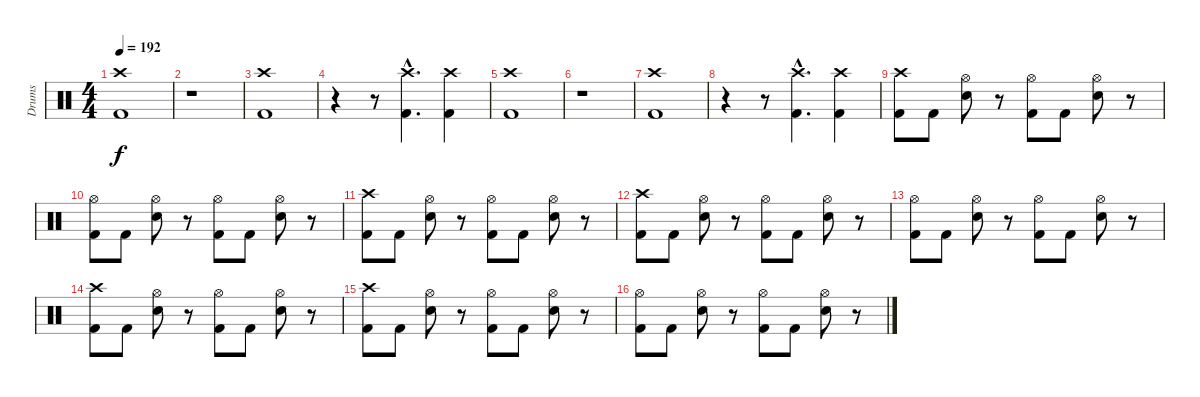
\track ("Drums" "Drums") {instrument percussion}
\staff {score}
\articulation defaults
\ts (4 4)
\tempo 192
\clef neutral
\ks c
("Crash high (hit)" "Kick (hit) 2").1{dy f} |
r.1 |
("Crash high (hit)" "Kick (hit) 2").1 |
r.4 r.8 ("Crash high (hit)"{hac} "Kick (hit) 2"{hac}).4{d} ("Crash high (hit)" "Kick (hit) 2").4 |
("Crash high (hit)" "Kick (hit) 2").1 |
r.1 |
("Crash high (hit)" "Kick (hit) 2").1 |
r.4 r.8 ("Crash high (hit)"{hac} "Kick (hit) 2"{hac}).4{d} ("Crash high (hit)" "Kick (hit) 2").4 |
("Crash high (hit)" "Kick (hit) 2").8 "Kick (hit) 2".8 ("Hi-Hat (open)" "Snare (hit) 2").8 r.8 ("Hi-Hat (open)" "Kick (hit) 2").8 "Kick (hit) 2".8 ("Hi-Hat (open)" "Snare (hit) 2").8 r.8 |
("Hi-Hat (open)" "Kick (hit) 2").8 "Kick (hit) 2".8 ("Hi-Hat (open)" "Snare (hit) 2").8 r.8 ("Hi-Hat (open)" "Kick (hit) 2").8 "Kick (hit) 2".8 ("Hi-Hat (open)" "Snare (hit) 2").8 r.8 |
("Crash high (hit)" "Kick (hit) 2").8 "Kick (hit) 2".8 ("Hi-Hat (open)" "Snare (hit) 2").8 r.8 ("Hi-Hat (open)" "Kick (hit) 2").8 "Kick (hit) 2".8 ("Hi-Hat (open)" "Snare (hit) 2").8 r.8 |
("Crash high (hit)" "Kick (hit) 2").8 "Kick (hit) 2".8 ("Hi-Hat (open)" "Snare (hit) 2").8 r.8 ("Hi-Hat (open)" "Kick (hit) 2").8 "Kick (hit) 2".8 ("Hi-Hat (open)" "Snare (hit) 2").8 r.8 |
("Hi-Hat (open)" "Kick (hit) 2").8 "Kick (hit) 2".8 ("Hi-Hat (open)" "Snare (hit) 2").8 r.8 ("Hi-Hat (open)" "Kick (hit) 2").8 "Kick (hit) 2".8 ("Hi-Hat (open)" "Snare (hit) 2").8 r.8 |
("Crash high (hit)" "Kick (hit) 2").8 "Kick (hit) 2".8 ("Hi-Hat (open)" "Snare (hit) 2").8 r.8 ("Hi-Hat (open)" "Kick (hit) 2").8 "Kick (hit) 2".8 ("Hi-Hat (open)" "Snare (hit) 2").8 r.8 |
("Crash high (hit)" "Kick (hit) 2").8 "Kick (hit) 2".8 ("Hi-Hat (open)" "Snare (hit) 2").8 r.8 ("Hi-Hat (open)" "Kick (hit) 2").8 "Kick (hit) 2".8 ("Hi-Hat (open)" "Snare (hit) 2").8 r.8 |
("Hi-Hat (open)" "Kick (hit) 2").8 "Kick (hit) 2".8 ("Hi-Hat (open)" "Snare (hit) 2").8 r.8 ("Hi-Hat (open)" "Kick (hit) 2").8 "Kick (hit) 2".8 ("Hi-Hat (open)" "Snare (hit) 2").8 r.8
